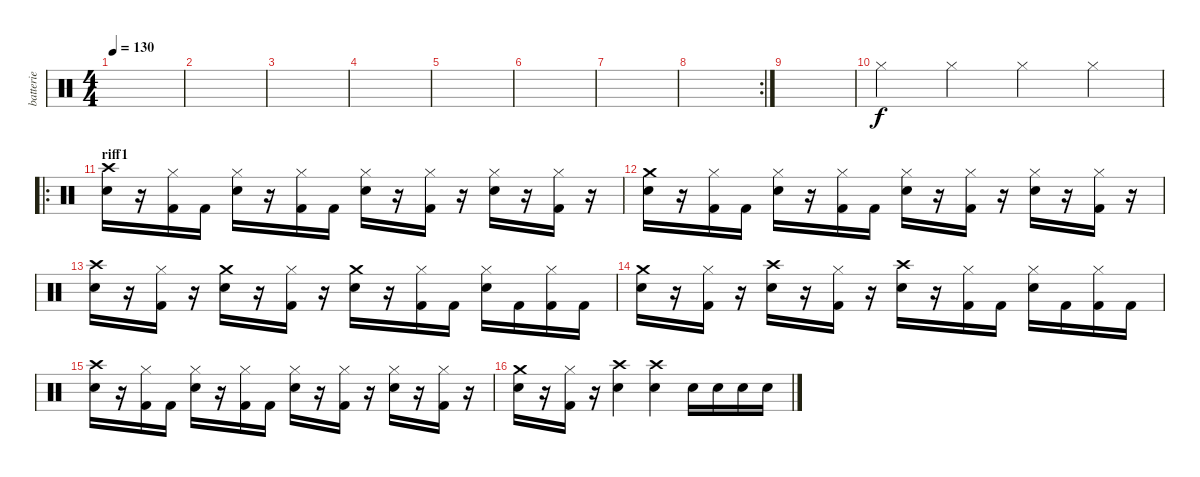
\track ("batterie" "batterie") {instrument percussion}
\staff {score}
\articulation defaults
\ts (4 4)
\tempo 130
\clef neutral
\ks c
|
|
|
|
|
|
|
\rc 2
|
|
"Hi-Hat (closed)".4 "Hi-Hat (closed)".4 "Hi-Hat (closed)".4 "Hi-Hat (closed)".4 |
\ro
\section ("" "riff1")
("Crash high (hit)" "Snare (hit) 2").16 r.16 ("Kick (hit) 2" "Hi-Hat (closed)").16 "Kick (hit) 2".16 ("Snare (hit) 2" "Hi-Hat (closed)").16 r.16 ("Kick (hit) 2" "Hi-Hat (closed)").16 "Kick (hit) 2".16 ("Snare (hit) 2" "Hi-Hat (closed)").16 r.16 ("Kick (hit) 2" "Hi-Hat (closed)").16 r.16 ("Snare (hit) 2" "Hi-Hat (closed)").16 r.16 ("Kick (hit) 2" "Hi-Hat (closed)").16 r.16 |
("Crash medium (hit)" "Snare (hit) 2").16 r.16 ("Kick (hit) 2" "Hi-Hat (closed)").16 "Kick (hit) 2".16 ("Snare (hit) 2" "Hi-Hat (closed)").16 r.16 ("Kick (hit) 2" "Hi-Hat (closed)").16 "Kick (hit) 2".16 ("Snare (hit) 2" "Hi-Hat (closed)").16 r.16 ("Kick (hit) 2" "Hi-Hat (closed)").16 r.16 ("Snare (hit) 2" "Hi-Hat (closed)").16 r.16 ("Kick (hit) 2" "Hi-Hat (closed)").16 r.16 |
("Crash high (hit)" "Snare (hit) 2").16 r.16 ("Kick (hit) 2" "Hi-Hat (closed)").16 r.16 ("Crash medium (hit)" "Snare (hit) 2").16 r.16 ("Kick (hit) 2" "Hi-Hat (closed)").16 r.16 ("Crash medium (hit)" "Snare (hit) 2").16 r.16 ("Kick (hit) 2" "Hi-Hat (closed)").16 "Kick (hit) 2".16 ("Snare (hit) 2" "Hi-Hat (closed)").16 "Kick (hit) 2".16 ("Kick (hit) 2" "Hi-Hat (closed)").16 "Kick (hit) 2".16 |
("Crash medium (hit)" "Snare (hit) 2").16 r.16 ("Kick (hit) 2" "Hi-Hat (closed)").16 r.16 ("Crash high (hit)" "Snare (hit) 2").16 r.16 ("Kick (hit) 2" "Hi-Hat (closed)").16 r.16 ("Crash high (hit)" "Snare (hit) 2").16 r.16 ("Kick (hit) 2" "Hi-Hat (closed)").16 "Kick (hit) 2".16 ("Snare (hit) 2" "Hi-Hat (closed)").16 "Kick (hit) 2".16 ("Kick (hit) 2" "Hi-Hat (closed)").16 "Kick (hit) 2".16 |
("Crash high (hit)" "Snare (hit) 2").16 r.16 ("Kick (hit) 2" "Hi-Hat (closed)").16 "Kick (hit) 2".16 ("Snare (hit) 2" "Hi-Hat (closed)").16 r.16 ("Kick (hit) 2" "Hi-Hat (closed)").16 "Kick (hit) 2".16 ("Snare (hit) 2" "Hi-Hat (closed)").16 r.16 ("Kick (hit) 2" "Hi-Hat (closed)").16 r.16 ("Snare (hit) 2" "Hi-Hat (closed)").16 r.16 ("Kick (hit) 2" "Hi-Hat (closed)").16 r.16 |
("Crash medium (hit)" "Snare (hit) 2").16 r.16 ("Kick (hit) 2" "Hi-Hat (closed)").16 r.16 ("Crash high (hit)" "Snare (hit) 2").4 ("Crash high (hit)" "Snare (hit) 2").4 "Snare (hit) 2".16 "Snare (hit) 2".16 "Snare (hit) 2".16 "Snare (hit) 2".16
